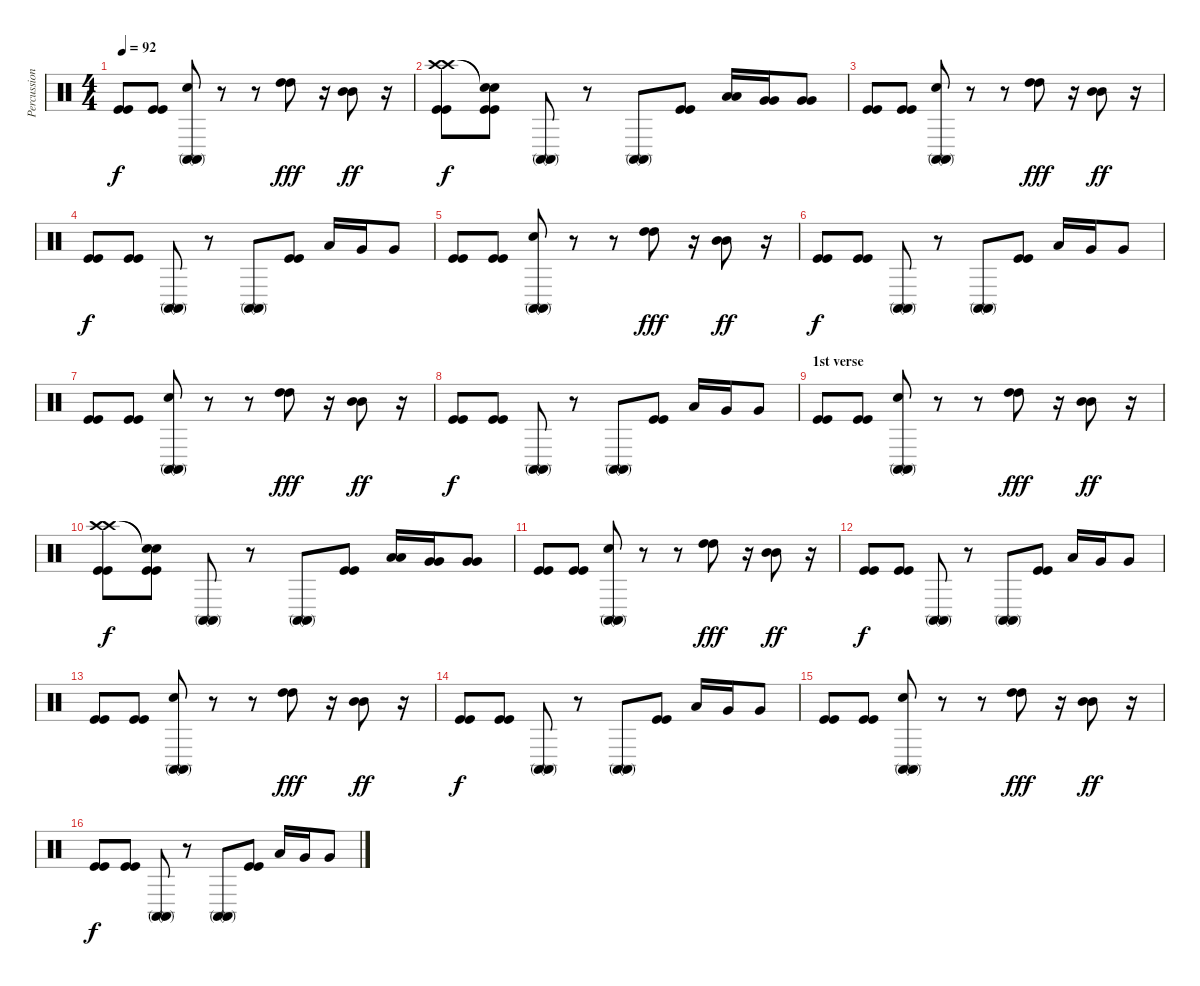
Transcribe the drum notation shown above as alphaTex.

\track ("Percussion" "Percussion") {instrument percussion}
\staff {score}
\articulation defaults
\ts (4 4)
\tempo 92
\clef neutral
\ks c
("Kick (hit)" "Kick (hit)").8{dy f} ("Kick (hit)" "Kick (hit)").8 ("Conga high (mute)" "Conga high (mute)" "Electric Snare (hit)").8 r.8 r.8 ("High Tom (hit)" "High Tom (hit)").8{dy fff} r.16 ("Mid Tom (hit)" "Mid Tom (hit)").8{dy ff} r.16 |
("Crash high (hit)" "Crash high (hit)" "Kick (hit)" "Kick (hit)").8{dy f} ("Snare (hit)"{t} "Snare (hit)"{t} "Kick (hit)" "Kick (hit)").8 ("Conga high (mute)" "Conga high (mute)").8 r.8 ("Conga high (mute)" "Conga high (mute)").8 ("Kick (hit)" "Kick (hit)").8 ("Low Tom (hit)" "Low Tom (hit)").16 ("Very Low Tom (hit)" "Very Low Tom (hit)").16 ("Very Low Tom (hit)" "Very Low Tom (hit)").8 |
("Kick (hit)" "Kick (hit)").8 ("Kick (hit)" "Kick (hit)").8 ("Conga high (mute)" "Conga high (mute)" "Electric Snare (hit)").8 r.8 r.8 ("High Tom (hit)" "High Tom (hit)").8{dy fff} r.16 ("Mid Tom (hit)" "Mid Tom (hit)").8{dy ff} r.16 |
("Kick (hit)" "Kick (hit)").8{dy f} ("Kick (hit)" "Kick (hit)").8 ("Conga high (mute)" "Conga high (mute)").8 r.8 ("Conga high (mute)" "Conga high (mute)").8 ("Kick (hit)" "Kick (hit)").8 "Low Tom (hit)".16 "Very Low Tom (hit)".16 "Very Low Tom (hit)".8 |
("Kick (hit)" "Kick (hit)").8 ("Kick (hit)" "Kick (hit)").8 ("Conga high (mute)" "Conga high (mute)" "Electric Snare (hit)").8 r.8 r.8 ("High Tom (hit)" "High Tom (hit)").8{dy fff} r.16 ("Mid Tom (hit)" "Mid Tom (hit)").8{dy ff} r.16 |
("Kick (hit)" "Kick (hit)").8{dy f} ("Kick (hit)" "Kick (hit)").8 ("Conga high (mute)" "Conga high (mute)").8 r.8 ("Conga high (mute)" "Conga high (mute)").8 ("Kick (hit)" "Kick (hit)").8 "Low Tom (hit)".16 "Very Low Tom (hit)".16 "Very Low Tom (hit)".8 |
("Kick (hit)" "Kick (hit)").8 ("Kick (hit)" "Kick (hit)").8 ("Conga high (mute)" "Conga high (mute)" "Electric Snare (hit)").8 r.8 r.8 ("High Tom (hit)" "High Tom (hit)").8{dy fff} r.16 ("Mid Tom (hit)" "Mid Tom (hit)").8{dy ff} r.16 |
("Kick (hit)" "Kick (hit)").8{dy f} ("Kick (hit)" "Kick (hit)").8 ("Conga high (mute)" "Conga high (mute)").8 r.8 ("Conga high (mute)" "Conga high (mute)").8 ("Kick (hit)" "Kick (hit)").8 "Low Tom (hit)".16 "Very Low Tom (hit)".16 "Very Low Tom (hit)".8 |
\section ("" "1st verse")
("Kick (hit)" "Kick (hit)").8 ("Kick (hit)" "Kick (hit)").8 ("Conga high (mute)" "Conga high (mute)" "Electric Snare (hit)").8 r.8 r.8 ("High Tom (hit)" "High Tom (hit)").8{dy fff} r.16 ("Mid Tom (hit)" "Mid Tom (hit)").8{dy ff} r.16 |
("Crash high (hit)" "Crash high (hit)" "Kick (hit)" "Kick (hit)").8{dy f} ("Snare (hit)"{t} "Snare (hit)"{t} "Kick (hit)" "Kick (hit)").8 ("Conga high (mute)" "Conga high (mute)").8 r.8 ("Conga high (mute)" "Conga high (mute)").8 ("Kick (hit)" "Kick (hit)").8 ("Low Tom (hit)" "Low Tom (hit)").16 ("Very Low Tom (hit)" "Very Low Tom (hit)").16 ("Very Low Tom (hit)" "Very Low Tom (hit)").8 |
("Kick (hit)" "Kick (hit)").8 ("Kick (hit)" "Kick (hit)").8 ("Conga high (mute)" "Conga high (mute)" "Electric Snare (hit)").8 r.8 r.8 ("High Tom (hit)" "High Tom (hit)").8{dy fff} r.16 ("Mid Tom (hit)" "Mid Tom (hit)").8{dy ff} r.16 |
("Kick (hit)" "Kick (hit)").8{dy f} ("Kick (hit)" "Kick (hit)").8 ("Conga high (mute)" "Conga high (mute)").8 r.8 ("Conga high (mute)" "Conga high (mute)").8 ("Kick (hit)" "Kick (hit)").8 "Low Tom (hit)".16 "Very Low Tom (hit)".16 "Very Low Tom (hit)".8 |
("Kick (hit)" "Kick (hit)").8 ("Kick (hit)" "Kick (hit)").8 ("Conga high (mute)" "Conga high (mute)" "Electric Snare (hit)").8 r.8 r.8 ("High Tom (hit)" "High Tom (hit)").8{dy fff} r.16 ("Mid Tom (hit)" "Mid Tom (hit)").8{dy ff} r.16 |
("Kick (hit)" "Kick (hit)").8{dy f} ("Kick (hit)" "Kick (hit)").8 ("Conga high (mute)" "Conga high (mute)").8 r.8 ("Conga high (mute)" "Conga high (mute)").8 ("Kick (hit)" "Kick (hit)").8 "Low Tom (hit)".16 "Very Low Tom (hit)".16 "Very Low Tom (hit)".8 |
("Kick (hit)" "Kick (hit)").8 ("Kick (hit)" "Kick (hit)").8 ("Conga high (mute)" "Conga high (mute)" "Electric Snare (hit)").8 r.8 r.8 ("High Tom (hit)" "High Tom (hit)").8{dy fff} r.16 ("Mid Tom (hit)" "Mid Tom (hit)").8{dy ff} r.16 |
("Kick (hit)" "Kick (hit)").8{dy f} ("Kick (hit)" "Kick (hit)").8 ("Conga high (mute)" "Conga high (mute)").8 r.8 ("Conga high (mute)" "Conga high (mute)").8 ("Kick (hit)" "Kick (hit)").8 "Low Tom (hit)".16 "Very Low Tom (hit)".16 "Very Low Tom (hit)".8
